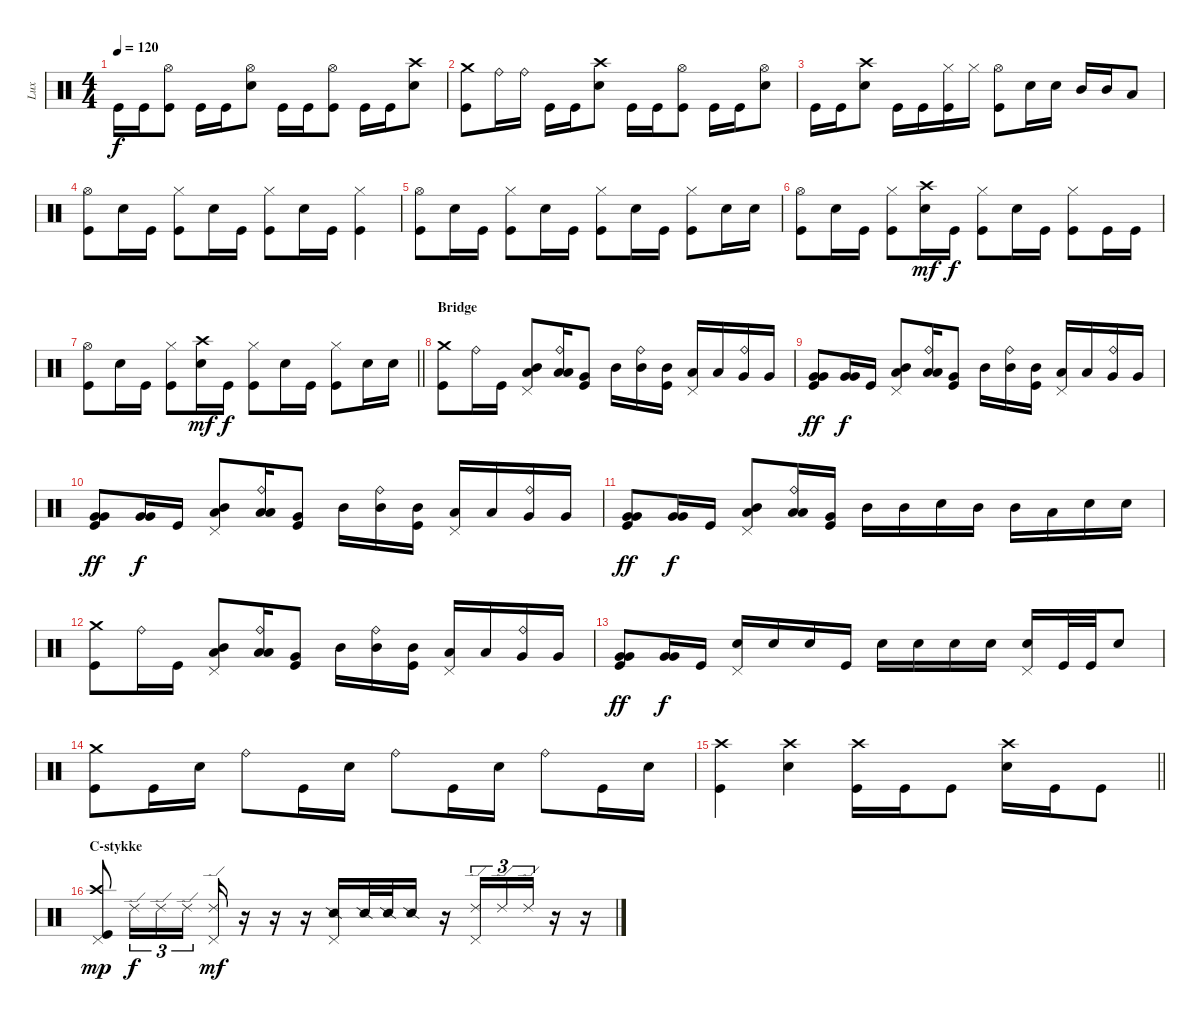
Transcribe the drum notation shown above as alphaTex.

\track ("Lux" "Lux") {instrument percussion bank 32}
\staff {score}
\articulation defaults
\ts (4 4)
\tempo 120
\clef neutral
\ks c "Kick (hit)".16{dy f} "Kick (hit)".16
("Hi-Hat (open)" "Kick (hit)").8 "Kick (hit)".16 "Kick (hit)".16 ("Hi-Hat (open)" "Snare (hit) 2").8 "Kick (hit)".16 "Kick (hit)".16 ("Hi-Hat (open)" "Kick (hit)").8 "Kick (hit)".16 "Kick (hit)".16 ("Crash high (hit)" "Snare (hit) 2").8 |
("Crash medium (hit)" "Kick (hit)").8 "Ride (bell)".16 "Ride (bell)".16 "Kick (hit)".16 "Kick (hit)".16 ("Crash high (hit)" "Snare (hit) 2").8 "Kick (hit)".16 "Kick (hit)".16 ("Hi-Hat (open)" "Kick (hit)").8 "Kick (hit)".16 "Kick (hit)".16 ("Hi-Hat (open)" "Snare (hit) 2").8 |
"Kick (hit)".16 "Kick (hit)".16 ("Crash high (hit)" "Snare (hit) 2").8 "Kick (hit)".16 "Kick (hit)".16 ("Hi-Hat (closed)" "Kick (hit)").16 "Hi-Hat (closed)".16 ("Hi-Hat (open)" "Kick (hit)").8 "Snare (hit) 2".16 "Snare (hit) 2".16 "Mid Tom (hit)".16 "Mid Tom (hit)".16 "Low Tom (hit)".8 |
("Hi-Hat (open)" "Kick (hit)").8 "Snare (hit) 2".16 "Kick (hit)".16 ("Hi-Hat (closed)" "Kick (hit)").8 "Snare (hit) 2".16 "Kick (hit)".16 ("Hi-Hat (closed)" "Kick (hit)").8 "Snare (hit) 2".16 "Kick (hit)".16 ("Hi-Hat (closed)" "Kick (hit)").4 |
("Hi-Hat (open)" "Kick (hit)").8 "Snare (hit) 2".16 "Kick (hit)".16 ("Hi-Hat (closed)" "Kick (hit)").8 "Snare (hit) 2".16 "Kick (hit)".16 ("Hi-Hat (closed)" "Kick (hit)").8 "Snare (hit) 2".16 "Kick (hit)".16 ("Hi-Hat (closed)" "Kick (hit)").8 "Snare (hit) 2".16 "Snare (hit) 2".16 |
("Hi-Hat (open)" "Kick (hit)").8 "Snare (hit) 2".16 "Kick (hit)".16 ("Hi-Hat (closed)" "Kick (hit)").8 ("Crash high (hit)" "Snare (hit) 2").16{dy mf} "Kick (hit)".16{dy f} ("Hi-Hat (closed)" "Kick (hit)").8 "Snare (hit) 2".16 "Kick (hit)".16 ("Hi-Hat (closed)" "Kick (hit)").8 "Kick (hit)".16 "Kick (hit)".16 |
\barLineRight lightlight
("Hi-Hat (open)" "Kick (hit)").8 "Snare (hit) 2".16 "Kick (hit)".16 ("Hi-Hat (closed)" "Kick (hit)").8 ("Crash high (hit)" "Snare (hit) 2").16{dy mf} "Kick (hit)".16{dy f} ("Hi-Hat (closed)" "Kick (hit)").8 "Snare (hit) 2".16 "Kick (hit)".16 ("Hi-Hat (closed)" "Kick (hit)").8 "Snare (hit) 2".16 "Snare (hit) 2".16 |
\section ("" "Bridge")
("Crash medium (hit)" "Kick (hit)").8 "Ride (bell)".16 "Kick (hit)".16 ("Pedal Hi-Hat (hit)" "Mid Tom (hit)" "Low Tom (hit)").8 ("Ride (bell)" "Low Tom (hit)" "Low Tom (hit)").16 ("Very Low Tom (hit)" "Kick (hit)").8 "Mid Tom (hit)".16 ("Ride (bell)" "Mid Tom (hit)").16 ("Mid Tom (hit)" "Kick (hit)").16 ("Pedal Hi-Hat (hit)" "Low Tom (hit)").16 "Low Tom (hit)".16 ("Ride (bell)" "Very Low Tom (hit)").16 "Very Low Tom (hit)".16 |
("Very Low Tom (hit)" "Very Low Tom (hit)" "Kick (hit)").8{dy ff} ("Very Low Tom (hit)" "Very Low Tom (hit)").16{dy f} "Kick (hit)".16 ("Pedal Hi-Hat (hit)" "Mid Tom (hit)" "Low Tom (hit)").8 ("Ride (bell)" "Low Tom (hit)" "Low Tom (hit)").16 ("Very Low Tom (hit)" "Kick (hit)").8 "Mid Tom (hit)".16 ("Ride (bell)" "Mid Tom (hit)").16 ("Mid Tom (hit)" "Kick (hit)").16 ("Pedal Hi-Hat (hit)" "Low Tom (hit)").16 "Low Tom (hit)".16 ("Ride (bell)" "Very Low Tom (hit)").16 "Very Low Tom (hit)".16 |
("Very Low Tom (hit)" "Very Low Tom (hit)" "Kick (hit)").8{dy ff} ("Very Low Tom (hit)" "Very Low Tom (hit)").16{dy f} "Kick (hit)".16 ("Pedal Hi-Hat (hit)" "Mid Tom (hit)" "Low Tom (hit)").8 ("Ride (bell)" "Low Tom (hit)" "Low Tom (hit)").16 ("Very Low Tom (hit)" "Kick (hit)").8 "Mid Tom (hit)".16 ("Ride (bell)" "Mid Tom (hit)").16 ("Mid Tom (hit)" "Kick (hit)").16 ("Pedal Hi-Hat (hit)" "Low Tom (hit)").16 "Low Tom (hit)".16 ("Ride (bell)" "Very Low Tom (hit)").16 "Very Low Tom (hit)".16 |
("Very Low Tom (hit)" "Very Low Tom (hit)" "Kick (hit)").8{dy ff} ("Very Low Tom (hit)" "Very Low Tom (hit)").16{dy f} "Kick (hit)".16 ("Pedal Hi-Hat (hit)" "Mid Tom (hit)" "Low Tom (hit)").8 ("Ride (bell)" "Low Tom (hit)" "Low Tom (hit)").16 ("Very Low Tom (hit)" "Kick (hit)").16 "Mid Tom (hit)".16 "Mid Tom (hit)".16 "Snare (hit) 2".16 "Mid Tom (hit)".16 "Mid Tom (hit)".16 "Low Tom (hit)".16 "Snare (hit) 2".16 "Snare (hit) 2".16 |
("Crash medium (hit)" "Kick (hit)").8 "Ride (bell)".16 "Kick (hit)".16 ("Pedal Hi-Hat (hit)" "Mid Tom (hit)" "Low Tom (hit)").8 ("Ride (bell)" "Low Tom (hit)" "Low Tom (hit)").16 ("Very Low Tom (hit)" "Kick (hit)").8 "Mid Tom (hit)".16 ("Ride (bell)" "Mid Tom (hit)").16 ("Mid Tom (hit)" "Kick (hit)").16 ("Pedal Hi-Hat (hit)" "Low Tom (hit)").16 "Low Tom (hit)".16 ("Ride (bell)" "Very Low Tom (hit)").16 "Very Low Tom (hit)".16 |
("Very Low Tom (hit)" "Very Low Tom (hit)" "Kick (hit)").8{dy ff} ("Very Low Tom (hit)" "Very Low Tom (hit)").16{dy f} "Kick (hit)".16 ("Pedal Hi-Hat (hit)" "Snare (hit) 2").16 "Snare (hit) 2".16 "Snare (hit) 2".16 "Kick (hit)".16 "Snare (hit) 2".16 "Snare (hit) 2".16 "Snare (hit) 2".16 "Snare (hit) 2".16 ("Pedal Hi-Hat (hit)" "Snare (hit) 2").16 "Kick (hit)".32 "Kick (hit)".32 "Snare (hit) 2".8 |
("Crash medium (hit)" "Kick (hit)").8 "Kick (hit)".16 "Snare (hit) 2".16 "Ride (bell)".8 "Kick (hit)".16 "Snare (hit) 2".16 "Ride (bell)".8 "Kick (hit)".16 "Snare (hit) 2".16 "Ride (bell)".8 "Kick (hit)".16 "Snare (hit) 2".16 |
\barLineRight lightlight
("Crash high (hit)" "Kick (hit)").4 ("Crash high (hit)" "Snare (hit) 2").4 ("Crash high (hit)" "Kick (hit)").16 "Kick (hit)".16 "Kick (hit)".8 ("Crash high (hit)" "Snare (hit) 2").16 "Kick (hit)".16 "Kick (hit)".8 |
\section ("" "C-stykke")
("Crash high (hit)" "Pedal Hi-Hat (hit)" "Kick (hit)").8{dy mp} "Ride (edge) 2".16{tu (3 2) dy f} "Ride (edge) 2".16{tu (3 2)} "Ride (edge) 2".16{tu (3 2)} ("Ride (edge) 2" "Pedal Hi-Hat (hit)").16{dy mf} r.16 r.16 r.16 ("Snare (side stick) 2" "Pedal Hi-Hat (hit)").16 "Snare (side stick) 2".32 "Snare (side stick) 2".32 "Snare (side stick) 2".16 r.16 ("Ride (edge) 2" "Pedal Hi-Hat (hit)").16{tu (3 2)} "Ride (edge) 2".16{tu (3 2)} "Ride (edge) 2".16{tu (3 2)} r.16 r.16
